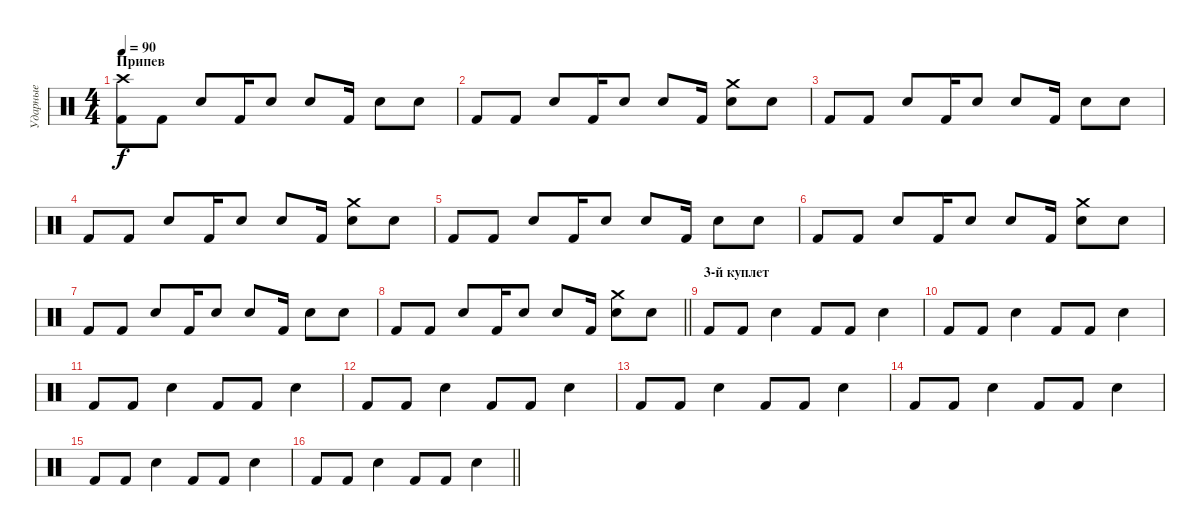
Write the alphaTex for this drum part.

\track ("Ударные" "Ударные") {instrument percussion}
\staff {score}
\articulation defaults
\ts (4 4)
\section ("" "Припев")
\tempo 90
\clef neutral
\ks c
("Crash high (hit)" "Kick (hit) 2").8{dy f} "Kick (hit) 2".8 "Snare (hit) 2".8 "Kick (hit) 2".16 "Snare (hit) 2".8 "Snare (hit) 2".8 "Kick (hit) 2".16 "Snare (hit) 2".8 "Snare (hit)".8 |
"Kick (hit) 2".8 "Kick (hit) 2".8 "Snare (hit) 2".8 "Kick (hit) 2".16 "Snare (hit) 2".8 "Snare (hit) 2".8 "Kick (hit) 2".16 ("Crash medium (hit)" "Snare (hit) 2").8 "Snare (hit)".8 |
"Kick (hit) 2".8 "Kick (hit) 2".8 "Snare (hit) 2".8 "Kick (hit) 2".16 "Snare (hit) 2".8 "Snare (hit) 2".8 "Kick (hit) 2".16 "Snare (hit) 2".8 "Snare (hit)".8 |
"Kick (hit) 2".8 "Kick (hit) 2".8 "Snare (hit) 2".8 "Kick (hit) 2".16 "Snare (hit) 2".8 "Snare (hit) 2".8 "Kick (hit) 2".16 ("Crash medium (hit)" "Snare (hit) 2").8 "Snare (hit)".8 |
"Kick (hit) 2".8 "Kick (hit) 2".8 "Snare (hit) 2".8 "Kick (hit) 2".16 "Snare (hit) 2".8 "Snare (hit) 2".8 "Kick (hit) 2".16 "Snare (hit) 2".8 "Snare (hit)".8 |
"Kick (hit) 2".8 "Kick (hit) 2".8 "Snare (hit) 2".8 "Kick (hit) 2".16 "Snare (hit) 2".8 "Snare (hit) 2".8 "Kick (hit) 2".16 ("Crash medium (hit)" "Snare (hit) 2").8 "Snare (hit)".8 |
"Kick (hit) 2".8 "Kick (hit) 2".8 "Snare (hit) 2".8 "Kick (hit) 2".16 "Snare (hit) 2".8 "Snare (hit) 2".8 "Kick (hit) 2".16 "Snare (hit) 2".8 "Snare (hit)".8 |
\barLineRight lightlight "Kick (hit) 2".8 "Kick (hit) 2".8 "Snare (hit) 2".8 "Kick (hit) 2".16 "Snare (hit) 2".8 "Snare (hit) 2".8 "Kick (hit) 2".16
("Crash medium (hit)" "Snare (hit) 2").8 "Snare (hit)".8 |
\section ("" "3-й куплет")
"Kick (hit) 2".8 "Kick (hit) 2".8 "Electric Snare (hit)".4 "Kick (hit) 2".8 "Kick (hit) 2".8 "Electric Snare (hit)".4 |
"Kick (hit) 2".8 "Kick (hit) 2".8 "Electric Snare (hit)".4 "Kick (hit) 2".8 "Kick (hit) 2".8 "Electric Snare (hit)".4 |
"Kick (hit) 2".8 "Kick (hit) 2".8 "Electric Snare (hit)".4 "Kick (hit) 2".8 "Kick (hit) 2".8 "Electric Snare (hit)".4 |
"Kick (hit) 2".8 "Kick (hit) 2".8 "Electric Snare (hit)".4 "Kick (hit) 2".8 "Kick (hit) 2".8 "Electric Snare (hit)".4 |
"Kick (hit) 2".8 "Kick (hit) 2".8 "Electric Snare (hit)".4 "Kick (hit) 2".8 "Kick (hit) 2".8 "Electric Snare (hit)".4 |
"Kick (hit) 2".8 "Kick (hit) 2".8 "Electric Snare (hit)".4 "Kick (hit) 2".8 "Kick (hit) 2".8 "Electric Snare (hit)".4 |
"Kick (hit) 2".8 "Kick (hit) 2".8 "Electric Snare (hit)".4 "Kick (hit) 2".8 "Kick (hit) 2".8 "Electric Snare (hit)".4 |
\barLineRight lightlight "Kick (hit) 2".8 "Kick (hit) 2".8 "Electric Snare (hit)".4 "Kick (hit) 2".8 "Kick (hit) 2".8 "Electric Snare (hit)".4
